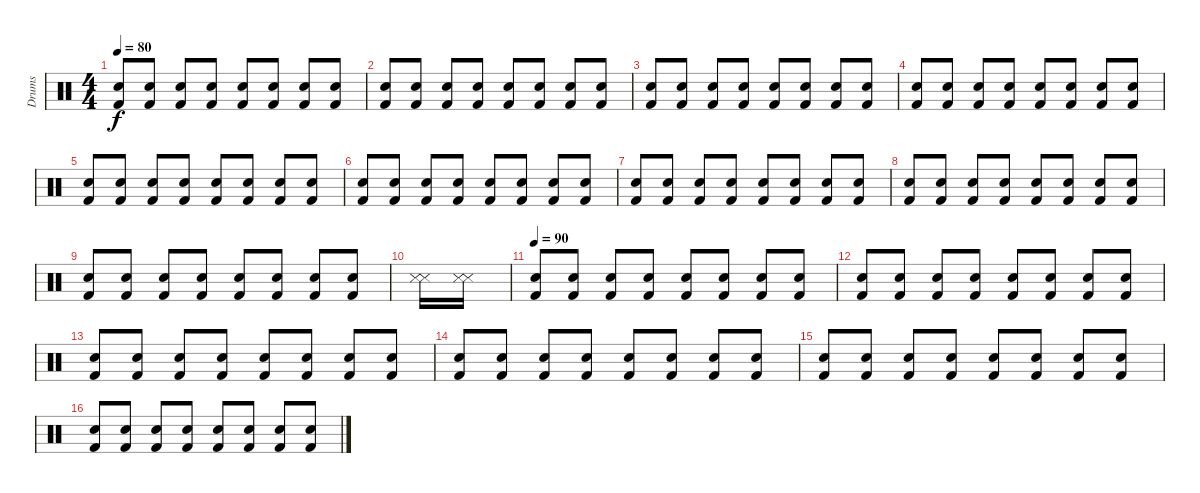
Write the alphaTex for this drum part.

\track ("Drums" "Drums") {instrument percussion}
\staff {score}
\articulation defaults
\ts (4 4)
\tempo 80
\clef neutral
\ks c
("Kick (hit) 2" "Snare (hit) 2").8{dy f} ("Kick (hit) 2" "Snare (hit) 2").8 ("Kick (hit) 2" "Snare (hit) 2").8 ("Kick (hit) 2" "Snare (hit) 2").8 ("Kick (hit) 2" "Snare (hit) 2").8 ("Kick (hit) 2" "Snare (hit) 2").8 ("Kick (hit) 2" "Snare (hit) 2").8 ("Kick (hit) 2" "Snare (hit) 2").8 |
("Kick (hit) 2" "Snare (hit) 2").8 ("Kick (hit) 2" "Snare (hit) 2").8 ("Kick (hit) 2" "Snare (hit) 2").8 ("Kick (hit) 2" "Snare (hit) 2").8 ("Kick (hit) 2" "Snare (hit) 2").8 ("Kick (hit) 2" "Snare (hit) 2").8 ("Kick (hit) 2" "Snare (hit) 2").8 ("Kick (hit) 2" "Snare (hit) 2").8 |
("Kick (hit) 2" "Snare (hit) 2").8 ("Kick (hit) 2" "Snare (hit) 2").8 ("Kick (hit) 2" "Snare (hit) 2").8 ("Kick (hit) 2" "Snare (hit) 2").8 ("Kick (hit) 2" "Snare (hit) 2").8 ("Kick (hit) 2" "Snare (hit) 2").8 ("Kick (hit) 2" "Snare (hit) 2").8 ("Kick (hit) 2" "Snare (hit) 2").8 |
("Kick (hit) 2" "Snare (hit) 2").8 ("Kick (hit) 2" "Snare (hit) 2").8 ("Kick (hit) 2" "Snare (hit) 2").8 ("Kick (hit) 2" "Snare (hit) 2").8 ("Kick (hit) 2" "Snare (hit) 2").8 ("Kick (hit) 2" "Snare (hit) 2").8 ("Kick (hit) 2" "Snare (hit) 2").8 ("Kick (hit) 2" "Snare (hit) 2").8 |
("Kick (hit) 2" "Snare (hit) 2").8 ("Kick (hit) 2" "Snare (hit) 2").8 ("Kick (hit) 2" "Snare (hit) 2").8 ("Kick (hit) 2" "Snare (hit) 2").8 ("Kick (hit) 2" "Snare (hit) 2").8 ("Kick (hit) 2" "Snare (hit) 2").8 ("Kick (hit) 2" "Snare (hit) 2").8 ("Kick (hit) 2" "Snare (hit) 2").8 |
("Kick (hit) 2" "Snare (hit) 2").8 ("Kick (hit) 2" "Snare (hit) 2").8 ("Kick (hit) 2" "Snare (hit) 2").8 ("Kick (hit) 2" "Snare (hit) 2").8 ("Kick (hit) 2" "Snare (hit) 2").8 ("Kick (hit) 2" "Snare (hit) 2").8 ("Kick (hit) 2" "Snare (hit) 2").8 ("Kick (hit) 2" "Snare (hit) 2").8 |
("Kick (hit) 2" "Snare (hit) 2").8 ("Kick (hit) 2" "Snare (hit) 2").8 ("Kick (hit) 2" "Snare (hit) 2").8 ("Kick (hit) 2" "Snare (hit) 2").8 ("Kick (hit) 2" "Snare (hit) 2").8 ("Kick (hit) 2" "Snare (hit) 2").8 ("Kick (hit) 2" "Snare (hit) 2").8 ("Kick (hit) 2" "Snare (hit) 2").8 |
("Kick (hit) 2" "Snare (hit) 2").8 ("Kick (hit) 2" "Snare (hit) 2").8 ("Kick (hit) 2" "Snare (hit) 2").8 ("Kick (hit) 2" "Snare (hit) 2").8 ("Kick (hit) 2" "Snare (hit) 2").8 ("Kick (hit) 2" "Snare (hit) 2").8 ("Kick (hit) 2" "Snare (hit) 2").8 ("Kick (hit) 2" "Snare (hit) 2").8 |
("Kick (hit) 2" "Snare (hit) 2").8 ("Kick (hit) 2" "Snare (hit) 2").8 ("Kick (hit) 2" "Snare (hit) 2").8 ("Kick (hit) 2" "Snare (hit) 2").8 ("Kick (hit) 2" "Snare (hit) 2").8 ("Kick (hit) 2" "Snare (hit) 2").8 ("Kick (hit) 2" "Snare (hit) 2").8 ("Kick (hit) 2" "Snare (hit) 2").8 |
("Snare (side stick) 3" "Snare (side stick) 3").16 ("Snare (side stick) 3" "Snare (side stick) 3").16 |
\tempo 90
("Kick (hit) 2" "Snare (hit) 2").8 ("Kick (hit) 2" "Snare (hit) 2").8 ("Kick (hit) 2" "Snare (hit) 2").8 ("Kick (hit) 2" "Snare (hit) 2").8 ("Kick (hit) 2" "Snare (hit) 2").8 ("Kick (hit) 2" "Snare (hit) 2").8 ("Kick (hit) 2" "Snare (hit) 2").8 ("Kick (hit) 2" "Snare (hit) 2").8 |
("Kick (hit) 2" "Snare (hit) 2").8 ("Kick (hit) 2" "Snare (hit) 2").8 ("Kick (hit) 2" "Snare (hit) 2").8 ("Kick (hit) 2" "Snare (hit) 2").8 ("Kick (hit) 2" "Snare (hit) 2").8 ("Kick (hit) 2" "Snare (hit) 2").8 ("Kick (hit) 2" "Snare (hit) 2").8 ("Kick (hit) 2" "Snare (hit) 2").8 |
("Kick (hit) 2" "Snare (hit) 2").8 ("Kick (hit) 2" "Snare (hit) 2").8 ("Kick (hit) 2" "Snare (hit) 2").8 ("Kick (hit) 2" "Snare (hit) 2").8 ("Kick (hit) 2" "Snare (hit) 2").8 ("Kick (hit) 2" "Snare (hit) 2").8 ("Kick (hit) 2" "Snare (hit) 2").8 ("Kick (hit) 2" "Snare (hit) 2").8 |
("Kick (hit) 2" "Snare (hit) 2").8 ("Kick (hit) 2" "Snare (hit) 2").8 ("Kick (hit) 2" "Snare (hit) 2").8 ("Kick (hit) 2" "Snare (hit) 2").8 ("Kick (hit) 2" "Snare (hit) 2").8 ("Kick (hit) 2" "Snare (hit) 2").8 ("Kick (hit) 2" "Snare (hit) 2").8 ("Kick (hit) 2" "Snare (hit) 2").8 |
("Kick (hit) 2" "Snare (hit) 2").8 ("Kick (hit) 2" "Snare (hit) 2").8 ("Kick (hit) 2" "Snare (hit) 2").8 ("Kick (hit) 2" "Snare (hit) 2").8 ("Kick (hit) 2" "Snare (hit) 2").8 ("Kick (hit) 2" "Snare (hit) 2").8 ("Kick (hit) 2" "Snare (hit) 2").8 ("Kick (hit) 2" "Snare (hit) 2").8 |
("Kick (hit) 2" "Snare (hit) 2").8 ("Kick (hit) 2" "Snare (hit) 2").8 ("Kick (hit) 2" "Snare (hit) 2").8 ("Kick (hit) 2" "Snare (hit) 2").8 ("Kick (hit) 2" "Snare (hit) 2").8 ("Kick (hit) 2" "Snare (hit) 2").8 ("Kick (hit) 2" "Snare (hit) 2").8 ("Kick (hit) 2" "Snare (hit) 2").8
